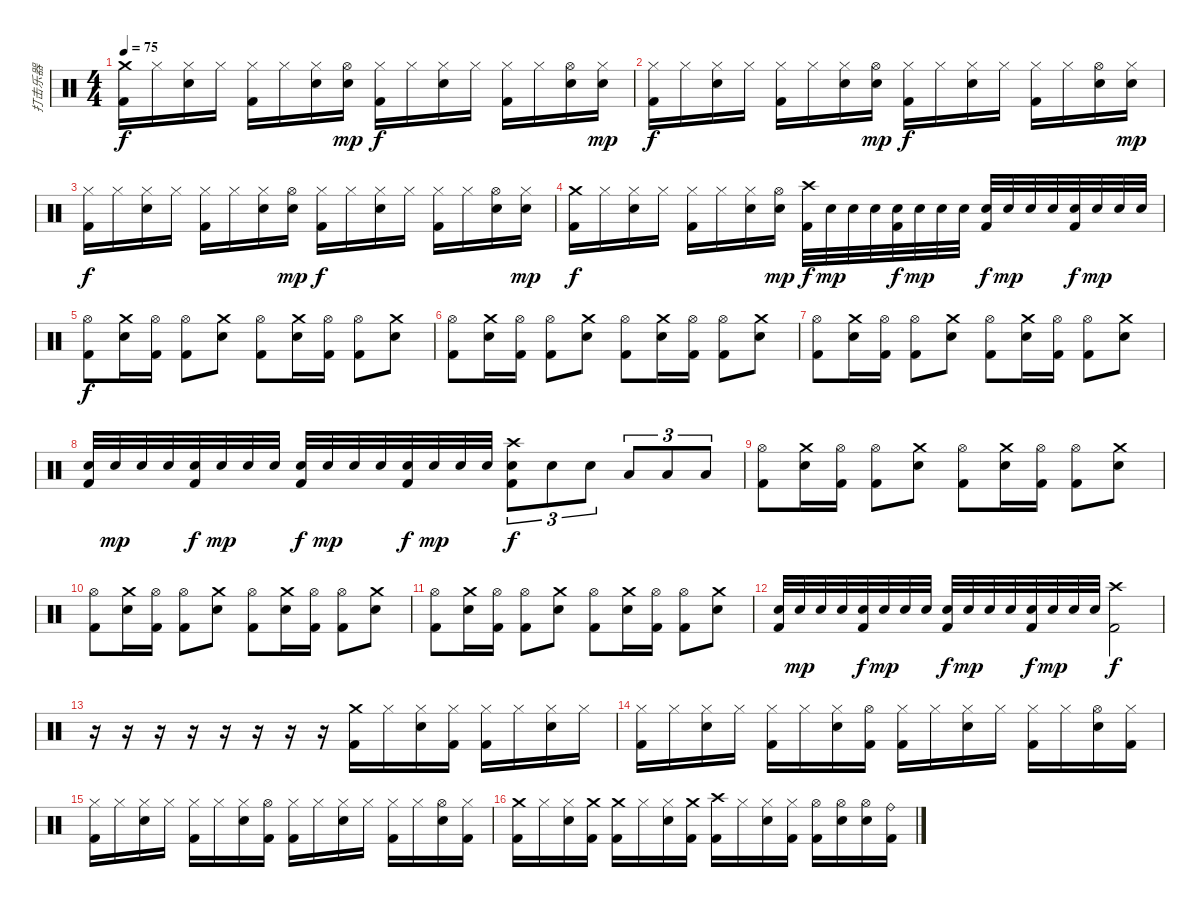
\track ("打击乐器" "打击乐器") {instrument percussion}
\staff {score}
\articulation defaults
\ts (4 4)
\tempo 75
\clef neutral
\ks c
("Crash medium (hit)" "Kick (hit) 2").16{dy f} "Hi-Hat (closed)".16 ("Hi-Hat (closed)" "Electric Snare (hit)").16 "Hi-Hat (closed)".16 ("Hi-Hat (closed)" "Kick (hit) 2").16 "Hi-Hat (closed)".16 ("Hi-Hat (closed)" "Electric Snare (hit)").16 ("Hi-Hat (open)" "Electric Snare (hit)").16{dy mp} ("Hi-Hat (closed)" "Kick (hit) 2").16{dy f} "Hi-Hat (closed)".16 ("Hi-Hat (closed)" "Electric Snare (hit)").16 "Hi-Hat (closed)".16 ("Hi-Hat (closed)" "Kick (hit) 2").16 "Hi-Hat (closed)".16 ("Hi-Hat (open)" "Electric Snare (hit)").16 ("Hi-Hat (closed)" "Electric Snare (hit)").16{dy mp} |
("Hi-Hat (closed)" "Kick (hit) 2").16{dy f} "Hi-Hat (closed)".16 ("Hi-Hat (closed)" "Electric Snare (hit)").16 "Hi-Hat (closed)".16 ("Hi-Hat (closed)" "Kick (hit) 2").16 "Hi-Hat (closed)".16 ("Hi-Hat (closed)" "Electric Snare (hit)").16 ("Hi-Hat (open)" "Electric Snare (hit)").16{dy mp} ("Hi-Hat (closed)" "Kick (hit) 2").16{dy f} "Hi-Hat (closed)".16 ("Hi-Hat (closed)" "Electric Snare (hit)").16 "Hi-Hat (closed)".16 ("Hi-Hat (closed)" "Kick (hit) 2").16 "Hi-Hat (closed)".16 ("Hi-Hat (open)" "Electric Snare (hit)").16 ("Hi-Hat (closed)" "Electric Snare (hit)").16{dy mp} |
("Hi-Hat (closed)" "Kick (hit) 2").16{dy f} "Hi-Hat (closed)".16 ("Hi-Hat (closed)" "Electric Snare (hit)").16 "Hi-Hat (closed)".16 ("Hi-Hat (closed)" "Kick (hit) 2").16 "Hi-Hat (closed)".16 ("Hi-Hat (closed)" "Electric Snare (hit)").16 ("Hi-Hat (open)" "Electric Snare (hit)").16{dy mp} ("Hi-Hat (closed)" "Kick (hit) 2").16{dy f} "Hi-Hat (closed)".16 ("Hi-Hat (closed)" "Electric Snare (hit)").16 "Hi-Hat (closed)".16 ("Hi-Hat (closed)" "Kick (hit) 2").16 "Hi-Hat (closed)".16 ("Hi-Hat (open)" "Electric Snare (hit)").16 ("Hi-Hat (closed)" "Electric Snare (hit)").16{dy mp} |
("Crash medium (hit)" "Kick (hit) 2").16{dy f} "Hi-Hat (closed)".16 ("Hi-Hat (closed)" "Electric Snare (hit)").16 "Hi-Hat (closed)".16 ("Hi-Hat (closed)" "Kick (hit) 2").16 "Hi-Hat (closed)".16 ("Hi-Hat (closed)" "Electric Snare (hit)").16 ("Hi-Hat (open)" "Electric Snare (hit)").16{dy mp} ("Crash high (hit)" "Kick (hit) 2").32{dy f} "Electric Snare (hit)".32{dy mp} "Electric Snare (hit)".32 "Electric Snare (hit)".32 ("Electric Snare (hit)" "Kick (hit) 2").32{dy f} "Electric Snare (hit)".32{dy mp} "Electric Snare (hit)".32 "Electric Snare (hit)".32 ("Electric Snare (hit)" "Kick (hit) 2").32{dy f} "Electric Snare (hit)".32{dy mp} "Electric Snare (hit)".32 "Electric Snare (hit)".32 ("Electric Snare (hit)" "Kick (hit) 2").32{dy f} "Electric Snare (hit)".32{dy mp} "Electric Snare (hit)".32 "Electric Snare (hit)".32 |
("Hi-Hat (open)" "Kick (hit) 2").8{dy f} ("Crash medium (hit)" "Electric Snare (hit)").16 ("Hi-Hat (open)" "Kick (hit) 2").16 ("Hi-Hat (open)" "Kick (hit) 2").8 ("Crash medium (hit)" "Electric Snare (hit)").8 ("Hi-Hat (open)" "Kick (hit) 2").8 ("Crash medium (hit)" "Electric Snare (hit)").16 ("Hi-Hat (open)" "Kick (hit) 2").16 ("Hi-Hat (open)" "Kick (hit) 2").8 ("Crash medium (hit)" "Electric Snare (hit)").8 |
("Hi-Hat (open)" "Kick (hit) 2").8 ("Crash medium (hit)" "Electric Snare (hit)").16 ("Hi-Hat (open)" "Kick (hit) 2").16 ("Hi-Hat (open)" "Kick (hit) 2").8 ("Crash medium (hit)" "Electric Snare (hit)").8 ("Hi-Hat (open)" "Kick (hit) 2").8 ("Crash medium (hit)" "Electric Snare (hit)").16 ("Hi-Hat (open)" "Kick (hit) 2").16 ("Hi-Hat (open)" "Kick (hit) 2").8 ("Crash medium (hit)" "Electric Snare (hit)").8 |
("Hi-Hat (open)" "Kick (hit) 2").8 ("Crash medium (hit)" "Electric Snare (hit)").16 ("Hi-Hat (open)" "Kick (hit) 2").16 ("Hi-Hat (open)" "Kick (hit) 2").8 ("Crash medium (hit)" "Electric Snare (hit)").8 ("Hi-Hat (open)" "Kick (hit) 2").8 ("Crash medium (hit)" "Electric Snare (hit)").16 ("Hi-Hat (open)" "Kick (hit) 2").16 ("Hi-Hat (open)" "Kick (hit) 2").8 ("Crash medium (hit)" "Electric Snare (hit)").8 |
("Electric Snare (hit)" "Kick (hit) 2").32 "Electric Snare (hit)".32{dy mp} "Electric Snare (hit)".32 "Electric Snare (hit)".32 ("Electric Snare (hit)" "Kick (hit) 2").32{dy f} "Electric Snare (hit)".32{dy mp} "Electric Snare (hit)".32 "Electric Snare (hit)".32 ("Electric Snare (hit)" "Kick (hit) 2").32{dy f} "Electric Snare (hit)".32{dy mp} "Electric Snare (hit)".32 "Electric Snare (hit)".32 ("Electric Snare (hit)" "Kick (hit) 2").32{dy f} "Electric Snare (hit)".32{dy mp} "Electric Snare (hit)".32 "Electric Snare (hit)".32 ("Crash high (hit)" "Electric Snare (hit)" "Kick (hit) 2").8{tu (3 2) dy f} "Electric Snare (hit)".8{tu (3 2)} "Electric Snare (hit)".8{tu (3 2)} "Low Tom (hit)".8{tu (3 2)} "Low Tom (hit)".8{tu (3 2)} "Low Tom (hit)".8{tu (3 2)} |
("Hi-Hat (open)" "Kick (hit) 2").8 ("Crash medium (hit)" "Electric Snare (hit)").16 ("Hi-Hat (open)" "Kick (hit) 2").16 ("Hi-Hat (open)" "Kick (hit) 2").8 ("Crash medium (hit)" "Electric Snare (hit)").8 ("Hi-Hat (open)" "Kick (hit) 2").8 ("Crash medium (hit)" "Electric Snare (hit)").16 ("Hi-Hat (open)" "Kick (hit) 2").16 ("Hi-Hat (open)" "Kick (hit) 2").8 ("Crash medium (hit)" "Electric Snare (hit)").8 |
("Hi-Hat (open)" "Kick (hit) 2").8 ("Crash medium (hit)" "Electric Snare (hit)").16 ("Hi-Hat (open)" "Kick (hit) 2").16 ("Hi-Hat (open)" "Kick (hit) 2").8 ("Crash medium (hit)" "Electric Snare (hit)").8 ("Hi-Hat (open)" "Kick (hit) 2").8 ("Crash medium (hit)" "Electric Snare (hit)").16 ("Hi-Hat (open)" "Kick (hit) 2").16 ("Hi-Hat (open)" "Kick (hit) 2").8 ("Crash medium (hit)" "Electric Snare (hit)").8 |
("Hi-Hat (open)" "Kick (hit) 2").8 ("Crash medium (hit)" "Electric Snare (hit)").16 ("Hi-Hat (open)" "Kick (hit) 2").16 ("Hi-Hat (open)" "Kick (hit) 2").8 ("Crash medium (hit)" "Electric Snare (hit)").8 ("Hi-Hat (open)" "Kick (hit) 2").8 ("Crash medium (hit)" "Electric Snare (hit)").16 ("Hi-Hat (open)" "Kick (hit) 2").16 ("Hi-Hat (open)" "Kick (hit) 2").8 ("Crash medium (hit)" "Electric Snare (hit)").8 |
("Electric Snare (hit)" "Kick (hit) 2").32 "Electric Snare (hit)".32{dy mp} "Electric Snare (hit)".32 "Electric Snare (hit)".32 ("Electric Snare (hit)" "Kick (hit) 2").32{dy f} "Electric Snare (hit)".32{dy mp} "Electric Snare (hit)".32 "Electric Snare (hit)".32 ("Electric Snare (hit)" "Kick (hit) 2").32{dy f} "Electric Snare (hit)".32{dy mp} "Electric Snare (hit)".32 "Electric Snare (hit)".32 ("Electric Snare (hit)" "Kick (hit) 2").32{dy f} "Electric Snare (hit)".32{dy mp} "Electric Snare (hit)".32 "Electric Snare (hit)".32 ("Crash high (hit)" "Kick (hit) 2").2{dy f} |
r.16 r.16 r.16 r.16 r.16 r.16 r.16 r.16 ("Crash medium (hit)" "Kick (hit) 2").16 "Hi-Hat (closed)".16 ("Hi-Hat (closed)" "Electric Snare (hit)").16 ("Hi-Hat (closed)" "Kick (hit) 2").16 ("Hi-Hat (closed)" "Kick (hit) 2").16 "Hi-Hat (closed)".16 ("Hi-Hat (closed)" "Electric Snare (hit)").16 "Hi-Hat (closed)".16 |
("Hi-Hat (closed)" "Kick (hit) 2").16 "Hi-Hat (closed)".16 ("Hi-Hat (closed)" "Electric Snare (hit)").16 "Hi-Hat (closed)".16 ("Hi-Hat (closed)" "Kick (hit) 2").16 "Hi-Hat (closed)".16 ("Hi-Hat (closed)" "Electric Snare (hit)").16 ("Hi-Hat (open)" "Kick (hit) 2").16 ("Hi-Hat (closed)" "Kick (hit) 2").16 "Hi-Hat (closed)".16 ("Hi-Hat (closed)" "Electric Snare (hit)").16 "Hi-Hat (closed)".16 ("Hi-Hat (closed)" "Kick (hit) 2").16 "Hi-Hat (closed)".16 ("Hi-Hat (open)" "Electric Snare (hit)").16 ("Hi-Hat (closed)" "Kick (hit) 2").16 |
("Hi-Hat (closed)" "Kick (hit) 2").16 "Hi-Hat (closed)".16 ("Hi-Hat (closed)" "Electric Snare (hit)").16 "Hi-Hat (closed)".16 ("Hi-Hat (closed)" "Kick (hit) 2").16 "Hi-Hat (closed)".16 ("Hi-Hat (closed)" "Electric Snare (hit)").16 ("Hi-Hat (open)" "Kick (hit) 2").16 ("Hi-Hat (closed)" "Kick (hit) 2").16 "Hi-Hat (closed)".16 ("Hi-Hat (closed)" "Electric Snare (hit)").16 "Hi-Hat (closed)".16 ("Hi-Hat (closed)" "Kick (hit) 2").16 "Hi-Hat (closed)".16 ("Hi-Hat (open)" "Electric Snare (hit)").16 ("Hi-Hat (closed)" "Kick (hit) 2").16 |
("Crash medium (hit)" "Kick (hit) 2").16 "Hi-Hat (closed)".16 ("Hi-Hat (closed)" "Electric Snare (hit)").16 ("Crash medium (hit)" "Kick (hit) 2").16 ("Crash medium (hit)" "Kick (hit) 2").16 "Hi-Hat (closed)".16 ("Hi-Hat (closed)" "Electric Snare (hit)").16 ("Crash medium (hit)" "Kick (hit) 2").16 ("Crash high (hit)" "Kick (hit) 2").16 "Hi-Hat (closed)".16 ("Hi-Hat (closed)" "Electric Snare (hit)").16 ("Hi-Hat (closed)" "Kick (hit) 2").16 ("Hi-Hat (open)" "Kick (hit) 2").16 ("Hi-Hat (open)" "Electric Snare (hit)").16 ("Hi-Hat (open)" "Electric Snare (hit)").16 ("Ride (bell)" "Kick (hit) 2").16
